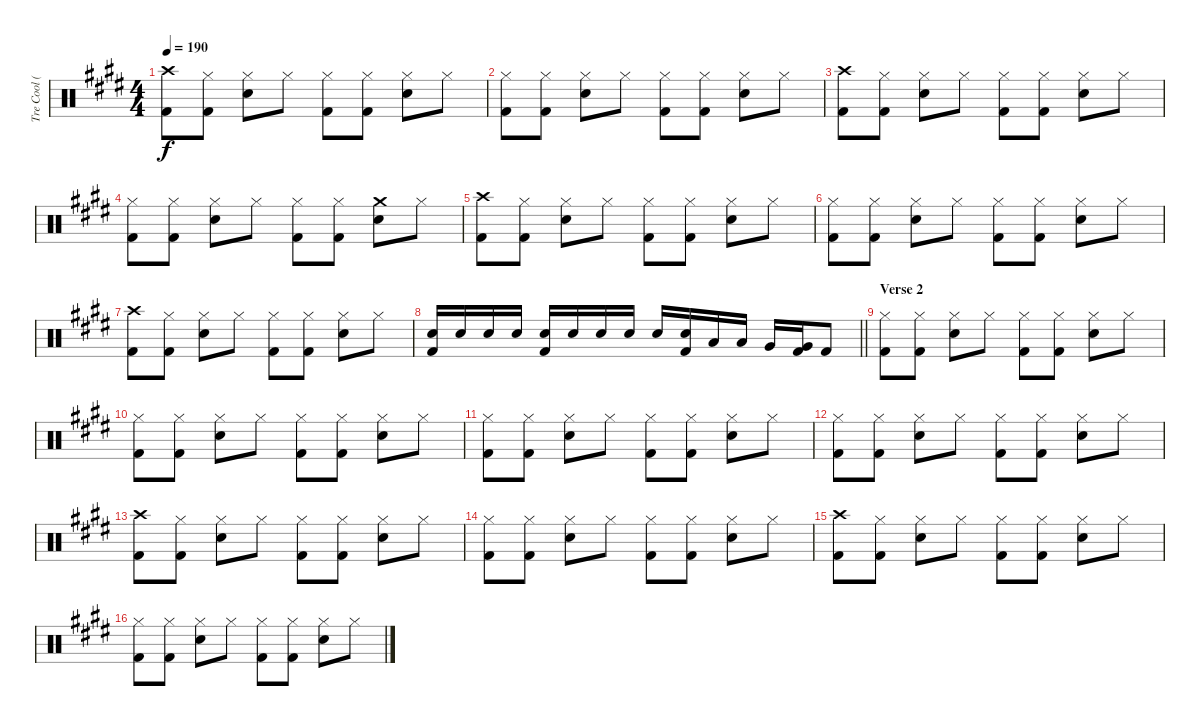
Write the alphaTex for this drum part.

\track ("Tre Cool (Drums)" "Tre Cool (") {instrument percussion}
\staff {score}
\articulation defaults
\ts (4 4)
\tempo 190
\clef neutral
\ks e
("Crash high (hit)" "Kick (hit) 2").8{dy f} ("Hi-Hat (closed)" "Kick (hit) 2").8 ("Hi-Hat (closed)" "Electric Snare (hit)").8 "Hi-Hat (closed)".8 ("Hi-Hat (closed)" "Kick (hit) 2").8 ("Hi-Hat (closed)" "Kick (hit) 2").8 ("Hi-Hat (closed)" "Electric Snare (hit)").8 "Hi-Hat (closed)".8 |
("Hi-Hat (closed)" "Kick (hit) 2").8 ("Hi-Hat (closed)" "Kick (hit) 2").8 ("Hi-Hat (closed)" "Electric Snare (hit)").8 "Hi-Hat (closed)".8 ("Hi-Hat (closed)" "Kick (hit) 2").8 ("Hi-Hat (closed)" "Kick (hit) 2").8 ("Hi-Hat (closed)" "Electric Snare (hit)").8 "Hi-Hat (closed)".8 |
("Crash high (hit)" "Kick (hit) 2").8 ("Hi-Hat (closed)" "Kick (hit) 2").8 ("Hi-Hat (closed)" "Electric Snare (hit)").8 "Hi-Hat (closed)".8 ("Hi-Hat (closed)" "Kick (hit) 2").8 ("Hi-Hat (closed)" "Kick (hit) 2").8 ("Hi-Hat (closed)" "Electric Snare (hit)").8 "Hi-Hat (closed)".8 |
("Hi-Hat (closed)" "Kick (hit) 2").8 ("Hi-Hat (closed)" "Kick (hit) 2").8 ("Hi-Hat (closed)" "Electric Snare (hit)").8 "Hi-Hat (closed)".8 ("Hi-Hat (closed)" "Kick (hit) 2").8 ("Hi-Hat (closed)" "Kick (hit) 2").8 ("Crash medium (hit)" "Electric Snare (hit)").8 "Hi-Hat (closed)".8 |
("Crash high (hit)" "Kick (hit) 2").8 ("Hi-Hat (closed)" "Kick (hit) 2").8 ("Hi-Hat (closed)" "Electric Snare (hit)").8 "Hi-Hat (closed)".8 ("Hi-Hat (closed)" "Kick (hit) 2").8 ("Hi-Hat (closed)" "Kick (hit) 2").8 ("Hi-Hat (closed)" "Electric Snare (hit)").8 "Hi-Hat (closed)".8 |
("Hi-Hat (closed)" "Kick (hit) 2").8 ("Hi-Hat (closed)" "Kick (hit) 2").8 ("Hi-Hat (closed)" "Electric Snare (hit)").8 "Hi-Hat (closed)".8 ("Hi-Hat (closed)" "Kick (hit) 2").8 ("Hi-Hat (closed)" "Kick (hit) 2").8 ("Hi-Hat (closed)" "Electric Snare (hit)").8 "Hi-Hat (closed)".8 |
("Crash high (hit)" "Kick (hit) 2").8 ("Hi-Hat (closed)" "Kick (hit) 2").8 ("Hi-Hat (closed)" "Electric Snare (hit)").8 "Hi-Hat (closed)".8 ("Hi-Hat (closed)" "Kick (hit) 2").8 ("Hi-Hat (closed)" "Kick (hit) 2").8 ("Hi-Hat (closed)" "Electric Snare (hit)").8 "Hi-Hat (closed)".8 |
\barLineRight lightlight
("Electric Snare (hit)" "Kick (hit) 2").16 "Electric Snare (hit)".16 "Electric Snare (hit)".16 "Electric Snare (hit)".16 ("Electric Snare (hit)" "Kick (hit) 2").16 "Electric Snare (hit)".16 "Electric Snare (hit)".16 "Electric Snare (hit)".16 "Electric Snare (hit)".16 ("Electric Snare (hit)" "Kick (hit) 2").16 "Low Tom (hit)".16 "Low Tom (hit)".16 "Very Low Tom (hit)".16 ("Very Low Tom (hit)" "Kick (hit) 2").16 "Kick (hit) 2".8 |
\section ("" "Verse 2")
("Hi-Hat (closed)" "Kick (hit) 2").8 ("Hi-Hat (closed)" "Kick (hit) 2").8 ("Hi-Hat (closed)" "Electric Snare (hit)").8 "Hi-Hat (closed)".8 ("Hi-Hat (closed)" "Kick (hit) 2").8 ("Hi-Hat (closed)" "Kick (hit) 2").8 ("Hi-Hat (closed)" "Electric Snare (hit)").8 "Hi-Hat (closed)".8 |
("Hi-Hat (closed)" "Kick (hit) 2").8 ("Hi-Hat (closed)" "Kick (hit) 2").8 ("Hi-Hat (closed)" "Electric Snare (hit)").8 "Hi-Hat (closed)".8 ("Hi-Hat (closed)" "Kick (hit) 2").8 ("Hi-Hat (closed)" "Kick (hit) 2").8 ("Hi-Hat (closed)" "Electric Snare (hit)").8 "Hi-Hat (closed)".8 |
("Hi-Hat (closed)" "Kick (hit) 2").8 ("Hi-Hat (closed)" "Kick (hit) 2").8 ("Hi-Hat (closed)" "Electric Snare (hit)").8 "Hi-Hat (closed)".8 ("Hi-Hat (closed)" "Kick (hit) 2").8 ("Hi-Hat (closed)" "Kick (hit) 2").8 ("Hi-Hat (closed)" "Electric Snare (hit)").8 "Hi-Hat (closed)".8 |
("Hi-Hat (closed)" "Kick (hit) 2").8 ("Hi-Hat (closed)" "Kick (hit) 2").8 ("Hi-Hat (closed)" "Electric Snare (hit)").8 "Hi-Hat (closed)".8 ("Hi-Hat (closed)" "Kick (hit) 2").8 ("Hi-Hat (closed)" "Kick (hit) 2").8 ("Hi-Hat (closed)" "Electric Snare (hit)").8 "Hi-Hat (closed)".8 |
("Crash high (hit)" "Kick (hit) 2").8 ("Hi-Hat (closed)" "Kick (hit) 2").8 ("Hi-Hat (closed)" "Electric Snare (hit)").8 "Hi-Hat (closed)".8 ("Hi-Hat (closed)" "Kick (hit) 2").8 ("Hi-Hat (closed)" "Kick (hit) 2").8 ("Hi-Hat (closed)" "Electric Snare (hit)").8 "Hi-Hat (closed)".8 |
("Hi-Hat (closed)" "Kick (hit) 2").8 ("Hi-Hat (closed)" "Kick (hit) 2").8 ("Hi-Hat (closed)" "Electric Snare (hit)").8 "Hi-Hat (closed)".8 ("Hi-Hat (closed)" "Kick (hit) 2").8 ("Hi-Hat (closed)" "Kick (hit) 2").8 ("Hi-Hat (closed)" "Electric Snare (hit)").8 "Hi-Hat (closed)".8 |
("Crash high (hit)" "Kick (hit) 2").8 ("Hi-Hat (closed)" "Kick (hit) 2").8 ("Hi-Hat (closed)" "Electric Snare (hit)").8 "Hi-Hat (closed)".8 ("Hi-Hat (closed)" "Kick (hit) 2").8 ("Hi-Hat (closed)" "Kick (hit) 2").8 ("Hi-Hat (closed)" "Electric Snare (hit)").8 "Hi-Hat (closed)".8 |
("Hi-Hat (closed)" "Kick (hit) 2").8 ("Hi-Hat (closed)" "Kick (hit) 2").8 ("Hi-Hat (closed)" "Electric Snare (hit)").8 "Hi-Hat (closed)".8 ("Hi-Hat (closed)" "Kick (hit) 2").8 ("Hi-Hat (closed)" "Kick (hit) 2").8 ("Hi-Hat (closed)" "Electric Snare (hit)").8 "Hi-Hat (closed)".8
